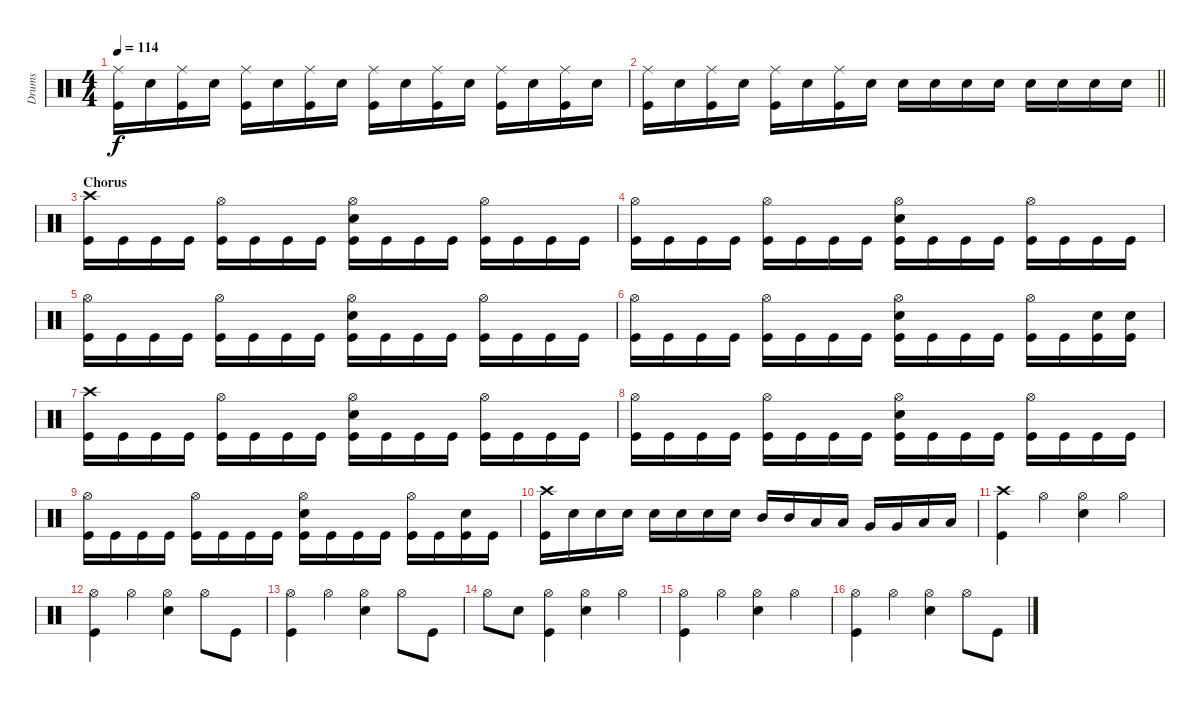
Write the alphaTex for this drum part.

\track ("Drums" "Drums") {instrument percussion}
\staff {score}
\articulation defaults
\ts (4 4)
\tempo 114
\clef neutral
\ks c
("Ride (middle)" "Kick (hit)").16{dy f} "Snare (hit) 2".16 ("Ride (middle)" "Kick (hit)").16 "Snare (hit) 2".16 ("Ride (middle)" "Kick (hit)").16 "Snare (hit) 2".16 ("Ride (middle)" "Kick (hit)").16 "Snare (hit) 2".16 ("Ride (middle)" "Kick (hit)").16 "Snare (hit) 2".16 ("Ride (middle)" "Kick (hit)").16 "Snare (hit) 2".16 ("Ride (middle)" "Kick (hit)").16 "Snare (hit) 2".16 ("Ride (middle)" "Kick (hit)").16 "Snare (hit) 2".16 |
\barLineRight lightlight
("Ride (middle)" "Kick (hit)").16 "Snare (hit) 2".16 ("Ride (middle)" "Kick (hit)").16 "Snare (hit) 2".16 ("Ride (middle)" "Kick (hit)").16 "Snare (hit) 2".16 ("Ride (middle)" "Kick (hit)").16 "Snare (hit) 2".16 "Snare (hit) 2".16 "Snare (hit) 2".16 "Snare (hit) 2".16 "Snare (hit) 2".16 "Snare (hit) 2".16 "Snare (hit) 2".16 "Snare (hit) 2".16 "Snare (hit) 2".16 |
\section ("" "Chorus")
("Crash high (hit)" "Kick (hit)").16 "Kick (hit)".16 "Kick (hit)".16 "Kick (hit)".16 ("Hi-Hat (open)" "Kick (hit)").16 "Kick (hit)".16 "Kick (hit)".16 "Kick (hit)".16 ("Hi-Hat (open)" "Snare (hit) 2" "Kick (hit)").16 "Kick (hit)".16 "Kick (hit)".16 "Kick (hit)".16 ("Hi-Hat (open)" "Kick (hit)").16 "Kick (hit)".16 "Kick (hit)".16 "Kick (hit)".16 |
("Hi-Hat (open)" "Kick (hit)").16 "Kick (hit)".16 "Kick (hit)".16 "Kick (hit)".16 ("Hi-Hat (open)" "Kick (hit)").16 "Kick (hit)".16 "Kick (hit)".16 "Kick (hit)".16 ("Hi-Hat (open)" "Snare (hit) 2" "Kick (hit)").16 "Kick (hit)".16 "Kick (hit)".16 "Kick (hit)".16 ("Hi-Hat (open)" "Kick (hit)").16 "Kick (hit)".16 "Kick (hit)".16 "Kick (hit)".16 |
("Hi-Hat (open)" "Kick (hit)").16 "Kick (hit)".16 "Kick (hit)".16 "Kick (hit)".16 ("Hi-Hat (open)" "Kick (hit)").16 "Kick (hit)".16 "Kick (hit)".16 "Kick (hit)".16 ("Hi-Hat (open)" "Snare (hit) 2" "Kick (hit)").16 "Kick (hit)".16 "Kick (hit)".16 "Kick (hit)".16 ("Hi-Hat (open)" "Kick (hit)").16 "Kick (hit)".16 "Kick (hit)".16 "Kick (hit)".16 |
("Hi-Hat (open)" "Kick (hit)").16 "Kick (hit)".16 "Kick (hit)".16 "Kick (hit)".16 ("Hi-Hat (open)" "Kick (hit)").16 "Kick (hit)".16 "Kick (hit)".16 "Kick (hit)".16 ("Hi-Hat (open)" "Snare (hit) 2" "Kick (hit)").16 "Kick (hit)".16 "Kick (hit)".16 "Kick (hit)".16 ("Hi-Hat (open)" "Kick (hit)").16 "Kick (hit)".16 ("Snare (hit) 2" "Kick (hit)").16 ("Snare (hit) 2" "Kick (hit)").16 |
("Crash high (hit)" "Kick (hit)").16 "Kick (hit)".16 "Kick (hit)".16 "Kick (hit)".16 ("Hi-Hat (open)" "Kick (hit)").16 "Kick (hit)".16 "Kick (hit)".16 "Kick (hit)".16 ("Hi-Hat (open)" "Snare (hit) 2" "Kick (hit)").16 "Kick (hit)".16 "Kick (hit)".16 "Kick (hit)".16 ("Hi-Hat (open)" "Kick (hit)").16 "Kick (hit)".16 "Kick (hit)".16 "Kick (hit)".16 |
("Hi-Hat (open)" "Kick (hit)").16 "Kick (hit)".16 "Kick (hit)".16 "Kick (hit)".16 ("Hi-Hat (open)" "Kick (hit)").16 "Kick (hit)".16 "Kick (hit)".16 "Kick (hit)".16 ("Hi-Hat (open)" "Snare (hit) 2" "Kick (hit)").16 "Kick (hit)".16 "Kick (hit)".16 "Kick (hit)".16 ("Hi-Hat (open)" "Kick (hit)").16 "Kick (hit)".16 "Kick (hit)".16 "Kick (hit)".16 |
("Hi-Hat (open)" "Kick (hit)").16 "Kick (hit)".16 "Kick (hit)".16 "Kick (hit)".16 ("Hi-Hat (open)" "Kick (hit)").16 "Kick (hit)".16 "Kick (hit)".16 "Kick (hit)".16 ("Hi-Hat (open)" "Snare (hit) 2" "Kick (hit)").16 "Kick (hit)".16 "Kick (hit)".16 "Kick (hit)".16 ("Hi-Hat (open)" "Kick (hit)").16 "Kick (hit)".16 ("Snare (hit) 2" "Kick (hit)").16 "Kick (hit)".16 |
("Crash high (hit)" "Kick (hit)").16 "Snare (hit) 2".16 "Snare (hit) 2".16 "Snare (hit) 2".16 "Snare (hit) 2".16 "Snare (hit) 2".16 "Snare (hit) 2".16 "Snare (hit) 2".16 "Mid Tom (hit)".16 "Mid Tom (hit)".16 "Low Tom (hit)".16 "Low Tom (hit)".16 "Very Low Tom (hit)".16 "Very Low Tom (hit)".16 "Low Floor Tom (hit)".16 "Low Floor Tom (hit)".16 |
("Crash high (hit)" "Kick (hit)").4 "Hi-Hat (open)".4 ("Hi-Hat (open)" "Snare (hit) 2").4 "Hi-Hat (open)".4 |
("Hi-Hat (open)" "Kick (hit)").4 "Hi-Hat (open)".4 ("Hi-Hat (open)" "Snare (hit) 2").4 "Hi-Hat (open)".8 "Kick (hit)".8 |
("Hi-Hat (open)" "Kick (hit)").4 "Hi-Hat (open)".4 ("Hi-Hat (open)" "Snare (hit) 2").4 "Hi-Hat (open)".8 "Kick (hit)".8 |
"Hi-Hat (open)".8 "Snare (hit) 2".8 ("Hi-Hat (open)" "Kick (hit)").4 ("Hi-Hat (open)" "Snare (hit) 2").4 "Hi-Hat (open)".4 |
("Hi-Hat (open)" "Kick (hit)").4 "Hi-Hat (open)".4 ("Hi-Hat (open)" "Snare (hit) 2").4 "Hi-Hat (open)".4 |
("Hi-Hat (open)" "Kick (hit)").4 "Hi-Hat (open)".4 ("Hi-Hat (open)" "Snare (hit) 2").4 "Hi-Hat (open)".8 "Kick (hit)".8
